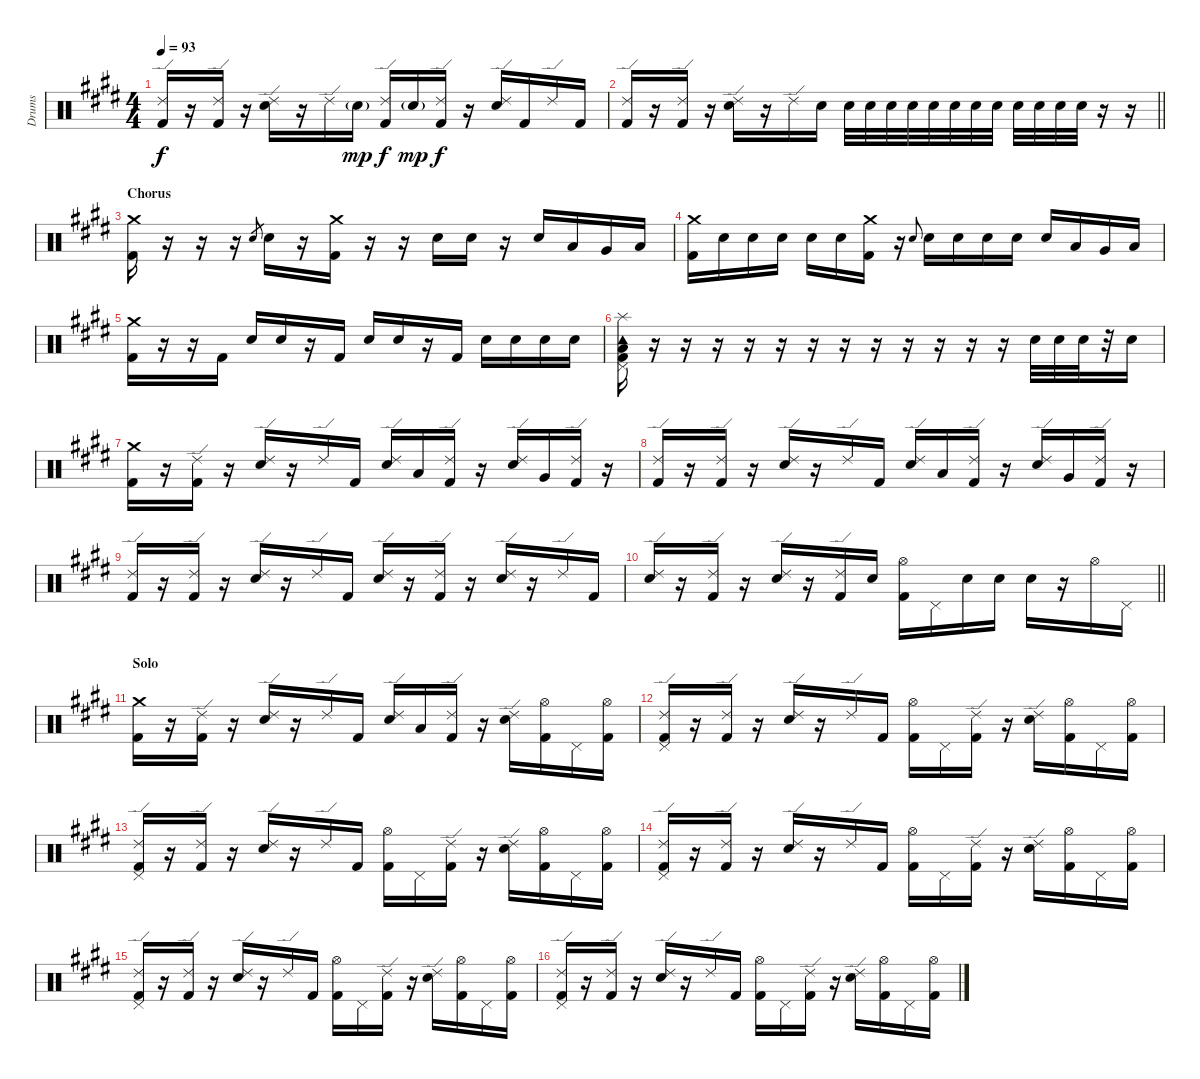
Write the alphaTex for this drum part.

\track ("Drums" "Drums") {instrument percussion}
\staff {score}
\articulation defaults
\ts (4 4)
\tempo 93
\clef neutral
\ks e
("Ride (edge) 2" "Kick (hit) 2").16{dy f} r.16 ("Ride (edge) 2" "Kick (hit) 2").16 r.16 ("Ride (edge) 2" "Snare (hit) 2").16 r.16 "Ride (edge) 2".16 "Snare (hit) 2"{g}.16{dy mp} ("Ride (edge) 2" "Kick (hit) 2").16{dy f} "Snare (hit) 2"{g}.16{dy mp} ("Ride (edge) 2" "Kick (hit) 2").16{dy f} r.16 ("Ride (edge) 2" "Snare (hit) 2").16 "Kick (hit) 2".16 "Ride (edge) 2".16 "Kick (hit) 2".16 |
\barLineRight lightlight
("Ride (edge) 2" "Kick (hit) 2").16 r.16 ("Ride (edge) 2" "Kick (hit) 2").16 r.16 ("Ride (edge) 2" "Snare (hit) 2").16 r.16 "Ride (edge) 2".16 "Snare (hit) 2".16 "Snare (hit) 2".32 "Snare (hit) 2".32 "Snare (hit) 2".32 "Snare (hit) 2".32 "Snare (hit) 2".32 "Snare (hit) 2".32 "Snare (hit) 2".32 "Snare (hit) 2".32 "Snare (hit) 2".32 "Snare (hit) 2".32 "Snare (hit) 2".32 "Snare (hit) 2".32 r.16 r.16 |
\section ("" "Chorus")
("Crash medium (hit)" "Kick (hit) 2").16 r.16 r.16 r.16 "Snare (hit) 2".8{gr} "Snare (hit) 2".16 r.16 ("Crash medium (hit)" "Kick (hit) 2").16 r.16 r.16 "Snare (hit) 2".16 "Snare (hit) 2".16 r.16 "Snare (hit) 2".16 "Low Tom (hit)".16 "Very Low Tom (hit)".16 "Low Floor Tom (hit)".16 |
("Crash medium (hit)" "Kick (hit) 2").16 "Snare (hit) 2".16 "Snare (hit) 2".16 "Snare (hit) 2".16 "Snare (hit) 2".16 "Snare (hit) 2".16 ("Crash medium (hit)" "Kick (hit) 2").16 r.16 "Snare (hit) 2".8{gr onbeat} "Snare (hit) 2".16 "Snare (hit) 2".16 "Snare (hit) 2".16 "Snare (hit) 2".16 "Snare (hit) 2".16 "Low Tom (hit)".16 "Very Low Tom (hit)".16 "Low Floor Tom (hit)".16 |
("Crash medium (hit)" "Kick (hit) 2").16 r.16 r.16 "Kick (hit) 2".16 "Snare (hit) 2".16 "Snare (hit) 2".16 r.16 "Kick (hit) 2".16 "Snare (hit) 2".16 "Snare (hit) 2".16 r.16 "Kick (hit) 2".16 "Snare (hit) 2".16 "Snare (hit) 2".16 "Snare (hit) 2".16 "Snare (hit) 2".16 |
("Pedal Hi-Hat (hit)" "Tambourine (hit)" "Splash (hit)" "Low Floor Tom (hit)" "Kick (hit) 2").16 r.16 r.16 r.16 r.16 r.16 r.16 r.16 r.16 r.16 r.16 r.16 r.16 "Snare (hit) 2".32 "Snare (hit) 2".32 "Snare (hit) 2".32 r.32 "Snare (hit) 2".16 |
("Crash medium (hit)" "Kick (hit) 2").16 r.16 ("Ride (edge) 2" "Kick (hit) 2").16 r.16 ("Ride (edge) 2" "Snare (hit) 2").16 r.16 "Ride (edge) 2".16 "Kick (hit) 2".16 ("Ride (edge) 2" "Snare (hit) 2").16 "Low Tom (hit)".16 ("Ride (edge) 2" "Kick (hit) 2").16 r.16 ("Ride (edge) 2" "Snare (hit) 2").16 "Very Low Tom (hit)".16 ("Ride (edge) 2" "Kick (hit) 2").16 r.16 |
("Ride (edge) 2" "Kick (hit) 2").16 r.16 ("Ride (edge) 2" "Kick (hit) 2").16 r.16 ("Ride (edge) 2" "Snare (hit) 2").16 r.16 "Ride (edge) 2".16 "Kick (hit) 2".16 ("Ride (edge) 2" "Snare (hit) 2").16 "Low Tom (hit)".16 ("Ride (edge) 2" "Kick (hit) 2").16 r.16 ("Ride (edge) 2" "Snare (hit) 2").16 "Very Low Tom (hit)".16 ("Ride (edge) 2" "Kick (hit) 2").16 r.16 |
("Ride (edge) 2" "Kick (hit) 2").16 r.16 ("Ride (edge) 2" "Kick (hit) 2").16 r.16 ("Ride (edge) 2" "Snare (hit) 2").16 r.16 "Ride (edge) 2".16 "Kick (hit) 2".16 ("Ride (edge) 2" "Snare (hit) 2").16 r.16 ("Ride (edge) 2" "Kick (hit) 2").16 r.16 ("Ride (edge) 2" "Snare (hit) 2").16 r.16 "Ride (edge) 2".16 "Kick (hit) 2".16 |
\barLineRight lightlight
("Ride (edge) 2" "Snare (hit) 2").16 r.16 ("Ride (edge) 2" "Kick (hit) 2").16 r.16 ("Ride (edge) 2" "Snare (hit) 2").16 r.16 ("Ride (edge) 2" "Kick (hit) 2").16 "Snare (hit) 2".16 ("Hi-Hat (open)" "Kick (hit) 2").16 "Pedal Hi-Hat (hit)".16 "Snare (hit) 2".16 "Snare (hit) 2".16 "Snare (hit) 2".16 r.16 "Hi-Hat (open)".16 "Pedal Hi-Hat (hit)".16 |
\section ("" "Solo")
("Crash medium (hit)" "Kick (hit) 2").16 r.16 ("Ride (edge) 2" "Kick (hit) 2").16 r.16 ("Ride (edge) 2" "Snare (hit) 2").16 r.16 "Ride (edge) 2".16 "Kick (hit) 2".16 ("Ride (edge) 2" "Snare (hit) 2").16 "Low Tom (hit)".16 ("Ride (edge) 2" "Kick (hit) 2").16 r.16 ("Ride (edge) 2" "Snare (hit) 2").16 ("Hi-Hat (open)" "Kick (hit) 2").16 "Pedal Hi-Hat (hit)".16 ("Hi-Hat (open)" "Kick (hit) 2").16 |
("Ride (edge) 2" "Pedal Hi-Hat (hit)" "Kick (hit) 2").16 r.16 ("Ride (edge) 2" "Kick (hit) 2").16 r.16 ("Ride (edge) 2" "Snare (hit) 2").16 r.16 "Ride (edge) 2".16 "Kick (hit) 2".16 ("Hi-Hat (open)" "Kick (hit) 2").16 "Pedal Hi-Hat (hit)".16 ("Ride (edge) 2" "Kick (hit) 2").16 r.16 ("Ride (edge) 2" "Snare (hit) 2").16 ("Hi-Hat (open)" "Kick (hit) 2").16 "Pedal Hi-Hat (hit)".16 ("Hi-Hat (open)" "Kick (hit) 2").16 |
("Ride (edge) 2" "Pedal Hi-Hat (hit)" "Kick (hit) 2").16 r.16 ("Ride (edge) 2" "Kick (hit) 2").16 r.16 ("Ride (edge) 2" "Snare (hit) 2").16 r.16 "Ride (edge) 2".16 "Kick (hit) 2".16 ("Hi-Hat (open)" "Kick (hit) 2").16 "Pedal Hi-Hat (hit)".16 ("Ride (edge) 2" "Kick (hit) 2").16 r.16 ("Ride (edge) 2" "Snare (hit) 2").16 ("Hi-Hat (open)" "Kick (hit) 2").16 "Pedal Hi-Hat (hit)".16 ("Hi-Hat (open)" "Kick (hit) 2").16 |
("Ride (edge) 2" "Pedal Hi-Hat (hit)" "Kick (hit) 2").16 r.16 ("Ride (edge) 2" "Kick (hit) 2").16 r.16 ("Ride (edge) 2" "Snare (hit) 2").16 r.16 "Ride (edge) 2".16 "Kick (hit) 2".16 ("Hi-Hat (open)" "Kick (hit) 2").16 "Pedal Hi-Hat (hit)".16 ("Ride (edge) 2" "Kick (hit) 2").16 r.16 ("Ride (edge) 2" "Snare (hit) 2").16 ("Hi-Hat (open)" "Kick (hit) 2").16 "Pedal Hi-Hat (hit)".16 ("Hi-Hat (open)" "Kick (hit) 2").16 |
("Ride (edge) 2" "Pedal Hi-Hat (hit)" "Kick (hit) 2").16 r.16 ("Ride (edge) 2" "Kick (hit) 2").16 r.16 ("Ride (edge) 2" "Snare (hit) 2").16 r.16 "Ride (edge) 2".16 "Kick (hit) 2".16 ("Hi-Hat (open)" "Kick (hit) 2").16 "Pedal Hi-Hat (hit)".16 ("Ride (edge) 2" "Kick (hit) 2").16 r.16 ("Ride (edge) 2" "Snare (hit) 2").16 ("Hi-Hat (open)" "Kick (hit) 2").16 "Pedal Hi-Hat (hit)".16 ("Hi-Hat (open)" "Kick (hit) 2").16 |
("Ride (edge) 2" "Pedal Hi-Hat (hit)" "Kick (hit) 2").16 r.16 ("Ride (edge) 2" "Kick (hit) 2").16 r.16 ("Ride (edge) 2" "Snare (hit) 2").16 r.16 "Ride (edge) 2".16 "Kick (hit) 2".16 ("Hi-Hat (open)" "Kick (hit) 2").16 "Pedal Hi-Hat (hit)".16 ("Ride (edge) 2" "Kick (hit) 2").16 r.16 ("Ride (edge) 2" "Snare (hit) 2").16 ("Hi-Hat (open)" "Kick (hit) 2").16 "Pedal Hi-Hat (hit)".16 ("Hi-Hat (open)" "Kick (hit) 2").16
